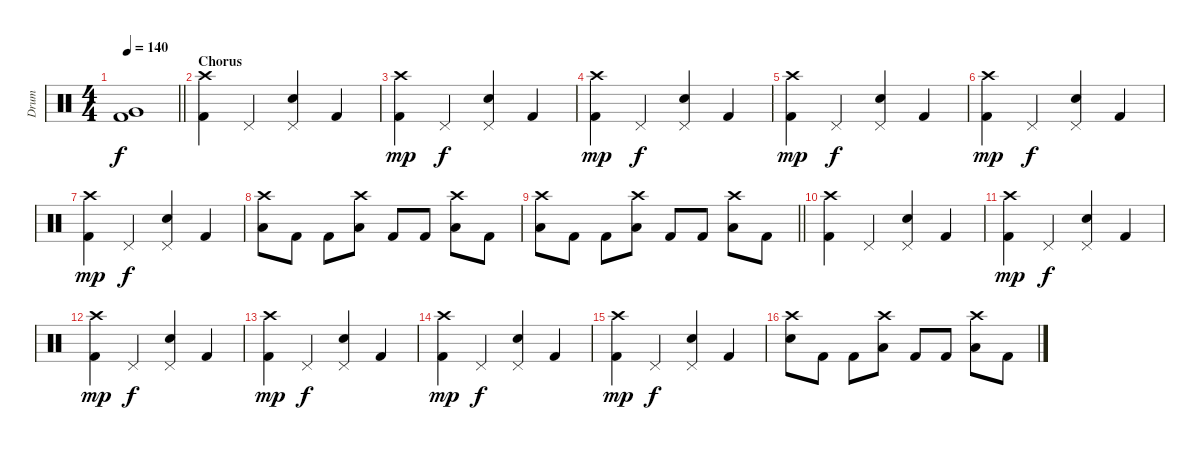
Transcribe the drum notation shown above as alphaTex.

\track ("Drum" "Drum") {instrument percussion}
\staff {score}
\articulation defaults
\ts (4 4)
\tempo 140
\clef neutral
\barLineRight lightlight
\ks c
("Very Low Tom (hit)" "Kick (hit) 2").1{dy f} |
\section ("" "Chorus")
("Kick (hit) 2" "Crash high (hit)").4 "Pedal Hi-Hat (hit)".4 ("Electric Snare (hit)" "Pedal Hi-Hat (hit)").4 "Kick (hit) 2".4 |
("Kick (hit) 2" "Crash high (hit)").4{dy mp} "Pedal Hi-Hat (hit)".4{dy f} ("Electric Snare (hit)" "Pedal Hi-Hat (hit)").4 "Kick (hit) 2".4 |
("Kick (hit) 2" "Crash high (hit)").4{dy mp} "Pedal Hi-Hat (hit)".4{dy f} ("Electric Snare (hit)" "Pedal Hi-Hat (hit)").4 "Kick (hit) 2".4 |
("Kick (hit) 2" "Crash high (hit)").4{dy mp} "Pedal Hi-Hat (hit)".4{dy f} ("Electric Snare (hit)" "Pedal Hi-Hat (hit)").4 "Kick (hit) 2".4 |
("Kick (hit) 2" "Crash high (hit)").4{dy mp} "Pedal Hi-Hat (hit)".4{dy f} ("Electric Snare (hit)" "Pedal Hi-Hat (hit)").4 "Kick (hit) 2".4 |
("Kick (hit) 2" "Crash high (hit)").4{dy mp} "Pedal Hi-Hat (hit)".4{dy f} ("Electric Snare (hit)" "Pedal Hi-Hat (hit)").4 "Kick (hit) 2".4 |
("Low Tom (hit)" "Crash high (hit)").8 "Kick (hit) 2".8 "Kick (hit) 2".8 ("Low Tom (hit)" "Crash high (hit)").8 "Kick (hit) 2".8 "Kick (hit) 2".8 ("Low Tom (hit)" "Crash high (hit)").8 "Kick (hit) 2".8 |
\barLineRight lightlight
("Low Tom (hit)" "Crash high (hit)").8 "Kick (hit) 2".8 "Kick (hit) 2".8 ("Low Tom (hit)" "Crash high (hit)").8 "Kick (hit) 2".8 "Kick (hit) 2".8 ("Low Tom (hit)" "Crash high (hit)").8 "Kick (hit) 2".8 |
("Kick (hit) 2" "Crash high (hit)").4 "Pedal Hi-Hat (hit)".4 ("Electric Snare (hit)" "Pedal Hi-Hat (hit)").4 "Kick (hit) 2".4 |
("Kick (hit) 2" "Crash high (hit)").4{dy mp} "Pedal Hi-Hat (hit)".4{dy f} ("Electric Snare (hit)" "Pedal Hi-Hat (hit)").4 "Kick (hit) 2".4 |
("Kick (hit) 2" "Crash high (hit)").4{dy mp} "Pedal Hi-Hat (hit)".4{dy f} ("Electric Snare (hit)" "Pedal Hi-Hat (hit)").4 "Kick (hit) 2".4 |
("Kick (hit) 2" "Crash high (hit)").4{dy mp} "Pedal Hi-Hat (hit)".4{dy f} ("Electric Snare (hit)" "Pedal Hi-Hat (hit)").4 "Kick (hit) 2".4 |
("Kick (hit) 2" "Crash high (hit)").4{dy mp} "Pedal Hi-Hat (hit)".4{dy f} ("Electric Snare (hit)" "Pedal Hi-Hat (hit)").4 "Kick (hit) 2".4 |
("Kick (hit) 2" "Crash high (hit)").4{dy mp} "Pedal Hi-Hat (hit)".4{dy f} ("Electric Snare (hit)" "Pedal Hi-Hat (hit)").4 "Kick (hit) 2".4 |
("Electric Snare (hit)" "Crash high (hit)").8 "Kick (hit) 2".8 "Kick (hit) 2".8 ("Low Tom (hit)" "Crash high (hit)").8 "Kick (hit) 2".8 "Kick (hit) 2".8 ("Low Tom (hit)" "Crash high (hit)").8 "Kick (hit) 2".8
